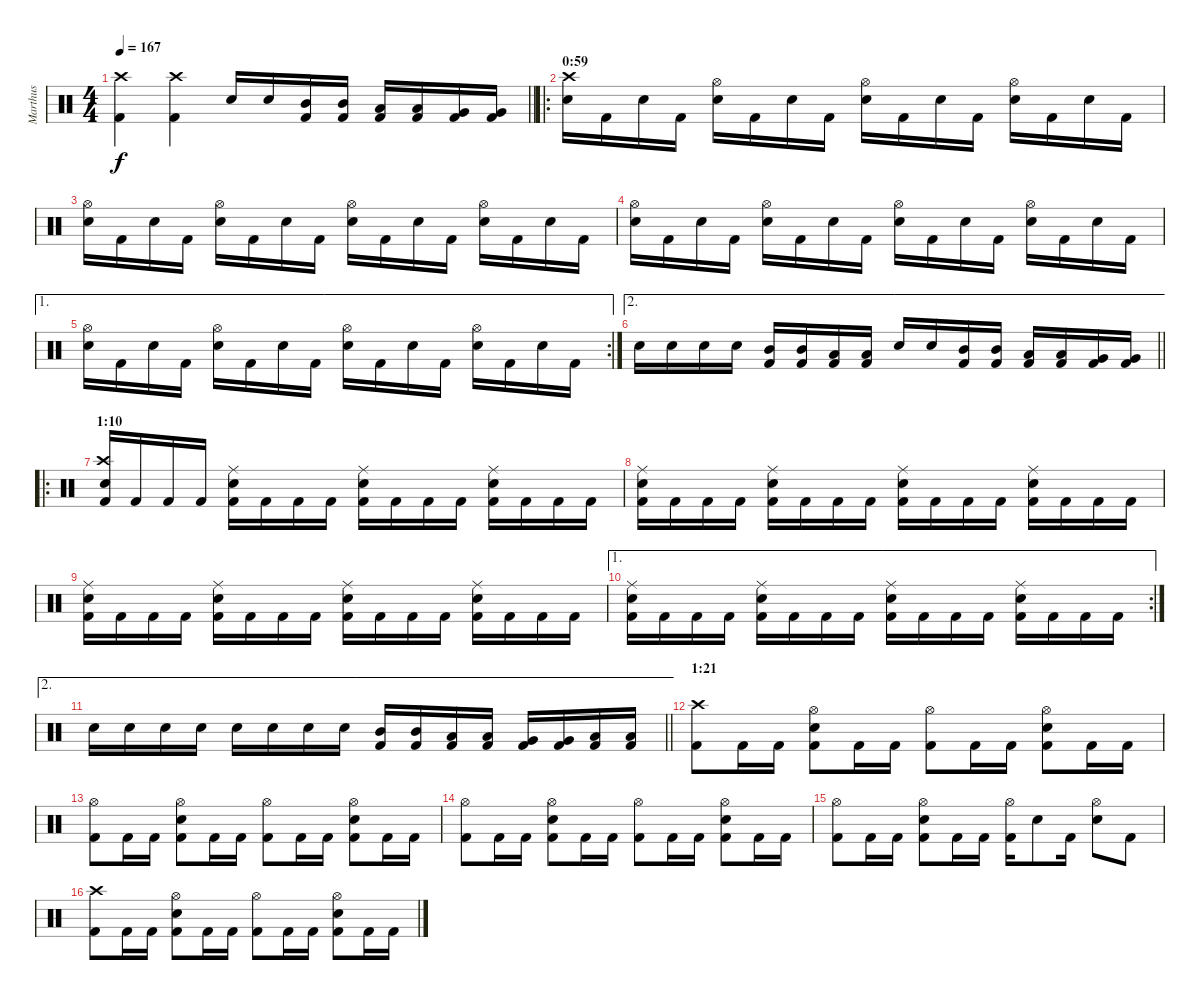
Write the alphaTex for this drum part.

\track ("Marthus" "Marthus") {instrument percussion}
\staff {score}
\articulation defaults
\ts (4 4)
\tempo 167
\clef neutral
\barLineRight lightlight
\ks c
("Kick (hit) 2" "Crash high (hit)").4{dy f} ("Kick (hit) 2" "Crash high (hit)").4 "Snare (hit) 2".16 "Snare (hit) 2".16 ("Kick (hit) 2" "Mid Tom (hit)").16 ("Kick (hit) 2" "Mid Tom (hit)").16 ("Kick (hit) 2" "Low Tom (hit)").16 ("Kick (hit) 2" "Low Tom (hit)").16 ("Kick (hit) 2" "Very Low Tom (hit)").16 ("Kick (hit) 2" "Very Low Tom (hit)").16 |
\ro
\section ("" "0:59")
("Snare (hit) 2" "Crash high (hit)").16 "Kick (hit) 2".16 "Snare (hit) 2".16 "Kick (hit) 2".16 ("Snare (hit) 2" "Hi-Hat (open)").16 "Kick (hit) 2".16 "Snare (hit) 2".16 "Kick (hit) 2".16 ("Snare (hit) 2" "Hi-Hat (open)").16 "Kick (hit) 2".16 "Snare (hit) 2".16 "Kick (hit) 2".16 ("Snare (hit) 2" "Hi-Hat (open)").16 "Kick (hit) 2".16 "Snare (hit) 2".16 "Kick (hit) 2".16 |
("Snare (hit) 2" "Hi-Hat (open)").16 "Kick (hit) 2".16 "Snare (hit) 2".16 "Kick (hit) 2".16 ("Snare (hit) 2" "Hi-Hat (open)").16 "Kick (hit) 2".16 "Snare (hit) 2".16 "Kick (hit) 2".16 ("Snare (hit) 2" "Hi-Hat (open)").16 "Kick (hit) 2".16 "Snare (hit) 2".16 "Kick (hit) 2".16 ("Snare (hit) 2" "Hi-Hat (open)").16 "Kick (hit) 2".16 "Snare (hit) 2".16 "Kick (hit) 2".16 |
("Snare (hit) 2" "Hi-Hat (open)").16 "Kick (hit) 2".16 "Snare (hit) 2".16 "Kick (hit) 2".16 ("Snare (hit) 2" "Hi-Hat (open)").16 "Kick (hit) 2".16 "Snare (hit) 2".16 "Kick (hit) 2".16 ("Snare (hit) 2" "Hi-Hat (open)").16 "Kick (hit) 2".16 "Snare (hit) 2".16 "Kick (hit) 2".16 ("Snare (hit) 2" "Hi-Hat (open)").16 "Kick (hit) 2".16 "Snare (hit) 2".16 "Kick (hit) 2".16 |
\ae 1
\rc 2
("Snare (hit) 2" "Hi-Hat (open)").16 "Kick (hit) 2".16 "Snare (hit) 2".16 "Kick (hit) 2".16 ("Snare (hit) 2" "Hi-Hat (open)").16 "Kick (hit) 2".16 "Snare (hit) 2".16 "Kick (hit) 2".16 ("Snare (hit) 2" "Hi-Hat (open)").16 "Kick (hit) 2".16 "Snare (hit) 2".16 "Kick (hit) 2".16 ("Snare (hit) 2" "Hi-Hat (open)").16 "Kick (hit) 2".16 "Snare (hit) 2".16 "Kick (hit) 2".16 |
\ae 2
\barLineRight lightlight "Snare (hit) 2".16 "Snare (hit) 2".16 "Snare (hit) 2".16 "Snare (hit) 2".16
("Kick (hit) 2" "Mid Tom (hit)").16 ("Kick (hit) 2" "Mid Tom (hit)").16 ("Kick (hit) 2" "Low Tom (hit)").16 ("Kick (hit) 2" "Low Tom (hit)").16 "Snare (hit) 2".16 "Snare (hit) 2".16 ("Kick (hit) 2" "Mid Tom (hit)").16 ("Kick (hit) 2" "Mid Tom (hit)").16 ("Kick (hit) 2" "Low Tom (hit)").16 ("Kick (hit) 2" "Low Tom (hit)").16 ("Kick (hit) 2" "Very Low Tom (hit)").16 ("Kick (hit) 2" "Very Low Tom (hit)").16 |
\ro
\section ("" "1:10")
("Kick (hit) 2" "Snare (hit) 2" "Crash high (hit)").16 "Kick (hit) 2".16 "Kick (hit) 2".16 "Kick (hit) 2".16 ("Kick (hit) 2" "Snare (hit) 2" "Ride (middle)").16 "Kick (hit) 2".16 "Kick (hit) 2".16 "Kick (hit) 2".16 ("Kick (hit) 2" "Snare (hit) 2" "Ride (middle)").16 "Kick (hit) 2".16 "Kick (hit) 2".16 "Kick (hit) 2".16 ("Kick (hit) 2" "Snare (hit) 2" "Ride (middle)").16 "Kick (hit) 2".16 "Kick (hit) 2".16 "Kick (hit) 2".16 |
("Kick (hit) 2" "Snare (hit) 2" "Ride (middle)").16 "Kick (hit) 2".16 "Kick (hit) 2".16 "Kick (hit) 2".16 ("Kick (hit) 2" "Snare (hit) 2" "Ride (middle)").16 "Kick (hit) 2".16 "Kick (hit) 2".16 "Kick (hit) 2".16 ("Kick (hit) 2" "Snare (hit) 2" "Ride (middle)").16 "Kick (hit) 2".16 "Kick (hit) 2".16 "Kick (hit) 2".16 ("Kick (hit) 2" "Snare (hit) 2" "Ride (middle)").16 "Kick (hit) 2".16 "Kick (hit) 2".16 "Kick (hit) 2".16 |
("Kick (hit) 2" "Snare (hit) 2" "Ride (middle)").16 "Kick (hit) 2".16 "Kick (hit) 2".16 "Kick (hit) 2".16 ("Kick (hit) 2" "Snare (hit) 2" "Ride (middle)").16 "Kick (hit) 2".16 "Kick (hit) 2".16 "Kick (hit) 2".16 ("Kick (hit) 2" "Snare (hit) 2" "Ride (middle)").16 "Kick (hit) 2".16 "Kick (hit) 2".16 "Kick (hit) 2".16 ("Kick (hit) 2" "Snare (hit) 2" "Ride (middle)").16 "Kick (hit) 2".16 "Kick (hit) 2".16 "Kick (hit) 2".16 |
\ae 1
\rc 2
("Kick (hit) 2" "Snare (hit) 2" "Ride (middle)").16 "Kick (hit) 2".16 "Kick (hit) 2".16 "Kick (hit) 2".16 ("Kick (hit) 2" "Snare (hit) 2" "Ride (middle)").16 "Kick (hit) 2".16 "Kick (hit) 2".16 "Kick (hit) 2".16 ("Kick (hit) 2" "Snare (hit) 2" "Ride (middle)").16 "Kick (hit) 2".16 "Kick (hit) 2".16 "Kick (hit) 2".16 ("Kick (hit) 2" "Snare (hit) 2" "Ride (middle)").16 "Kick (hit) 2".16 "Kick (hit) 2".16 "Kick (hit) 2".16 |
\ae 2
\barLineRight lightlight "Snare (hit) 2".16 "Snare (hit) 2".16 "Snare (hit) 2".16 "Snare (hit) 2".16 "Snare (hit) 2".16 "Snare (hit) 2".16 "Snare (hit) 2".16 "Snare (hit) 2".16
("Kick (hit) 2" "Mid Tom (hit)").16 ("Kick (hit) 2" "Mid Tom (hit)").16 ("Kick (hit) 2" "Low Tom (hit)").16 ("Kick (hit) 2" "Low Tom (hit)").16 ("Kick (hit) 2" "Very Low Tom (hit)").16 ("Kick (hit) 2" "Very Low Tom (hit)").16 ("Kick (hit) 2" "Low Floor Tom (hit)").16 ("Kick (hit) 2" "Low Floor Tom (hit)").16 |
\section ("" "1:21")
("Kick (hit) 2" "Crash high (hit)").8 "Kick (hit) 2".16 "Kick (hit) 2".16 ("Kick (hit) 2" "Snare (hit) 2" "Hi-Hat (open)").8 "Kick (hit) 2".16 "Kick (hit) 2".16 ("Kick (hit) 2" "Hi-Hat (open)").8 "Kick (hit) 2".16 "Kick (hit) 2".16 ("Kick (hit) 2" "Snare (hit) 2" "Hi-Hat (open)").8 "Kick (hit) 2".16 "Kick (hit) 2".16 |
("Kick (hit) 2" "Hi-Hat (open)").8 "Kick (hit) 2".16 "Kick (hit) 2".16 ("Kick (hit) 2" "Snare (hit) 2" "Hi-Hat (open)").8 "Kick (hit) 2".16 "Kick (hit) 2".16 ("Kick (hit) 2" "Hi-Hat (open)").8 "Kick (hit) 2".16 "Kick (hit) 2".16 ("Kick (hit) 2" "Snare (hit) 2" "Hi-Hat (open)").8 "Kick (hit) 2".16 "Kick (hit) 2".16 |
("Kick (hit) 2" "Hi-Hat (open)").8 "Kick (hit) 2".16 "Kick (hit) 2".16 ("Kick (hit) 2" "Snare (hit) 2" "Hi-Hat (open)").8 "Kick (hit) 2".16 "Kick (hit) 2".16 ("Kick (hit) 2" "Hi-Hat (open)").8 "Kick (hit) 2".16 "Kick (hit) 2".16 ("Kick (hit) 2" "Snare (hit) 2" "Hi-Hat (open)").8 "Kick (hit) 2".16 "Kick (hit) 2".16 |
("Kick (hit) 2" "Hi-Hat (open)").8 "Kick (hit) 2".16 "Kick (hit) 2".16 ("Kick (hit) 2" "Snare (hit) 2" "Hi-Hat (open)").8 "Kick (hit) 2".16 "Kick (hit) 2".16 ("Kick (hit) 2" "Hi-Hat (open)").16 "Snare (hit) 2".8 "Kick (hit) 2".16 ("Snare (hit) 2" "Hi-Hat (open)").8 "Kick (hit) 2".8 |
("Kick (hit) 2" "Crash high (hit)").8 "Kick (hit) 2".16 "Kick (hit) 2".16 ("Kick (hit) 2" "Snare (hit) 2" "Hi-Hat (open)").8 "Kick (hit) 2".16 "Kick (hit) 2".16 ("Kick (hit) 2" "Hi-Hat (open)").8 "Kick (hit) 2".16 "Kick (hit) 2".16 ("Kick (hit) 2" "Snare (hit) 2" "Hi-Hat (open)").8 "Kick (hit) 2".16 "Kick (hit) 2".16
